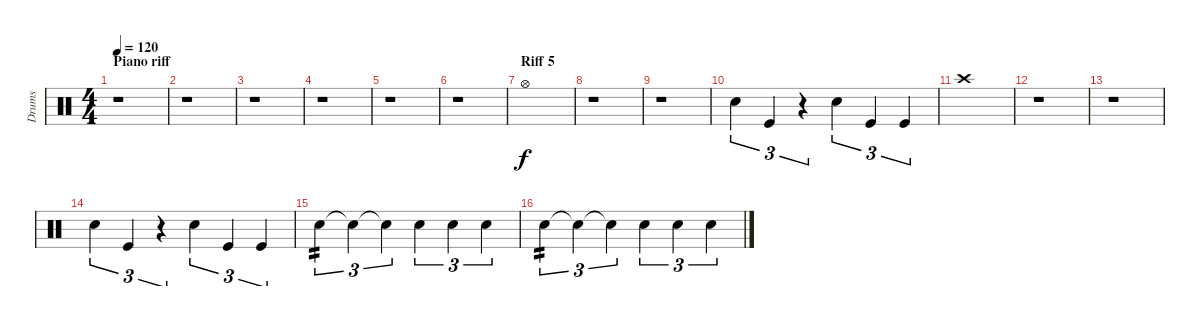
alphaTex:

\track ("Drums" "Drums") {instrument percussion}
\staff {score}
\articulation defaults
\ts (4 4)
\section ("" "Piano riff")
\tempo 120
\clef neutral
\ks c
r.1{dy f} |
r.1 |
r.1 |
r.1 |
r.1 |
r.1 |
\section ("" "Riff 5")
"Hi-Hat (open)".1 |
r.1 |
r.1 |
"Snare (hit) 2".4{tu (3 2)} "Kick (hit)".4{tu (3 2)} r.4{tu (3 2)} "Snare (hit) 2".4{tu (3 2)} "Kick (hit)".4{tu (3 2)} "Kick (hit)".4{tu (3 2)} |
"Crash high (hit)".1 |
r.1 |
r.1 |
"Snare (hit) 2".4{tu (3 2)} "Kick (hit)".4{tu (3 2)} r.4{tu (3 2)} "Snare (hit) 2".4{tu (3 2)} "Kick (hit)".4{tu (3 2)} "Kick (hit)".4{tu (3 2)} |
"Snare (hit) 2".4{tu (3 2) tp 2} "Snare (hit) 2"{t}.4{tu (3 2)} "Snare (hit) 2"{t}.4{tu (3 2)} "Snare (hit) 2".4{tu (3 2)} "Snare (hit) 2".4{tu (3 2)} "Snare (hit) 2".4{tu (3 2)} |
"Snare (hit) 2".4{tu (3 2) tp 2} "Snare (hit) 2"{t}.4{tu (3 2)} "Snare (hit) 2"{t}.4{tu (3 2)} "Snare (hit) 2".4{tu (3 2)} "Snare (hit) 2".4{tu (3 2)} "Snare (hit) 2".4{tu (3 2)}
